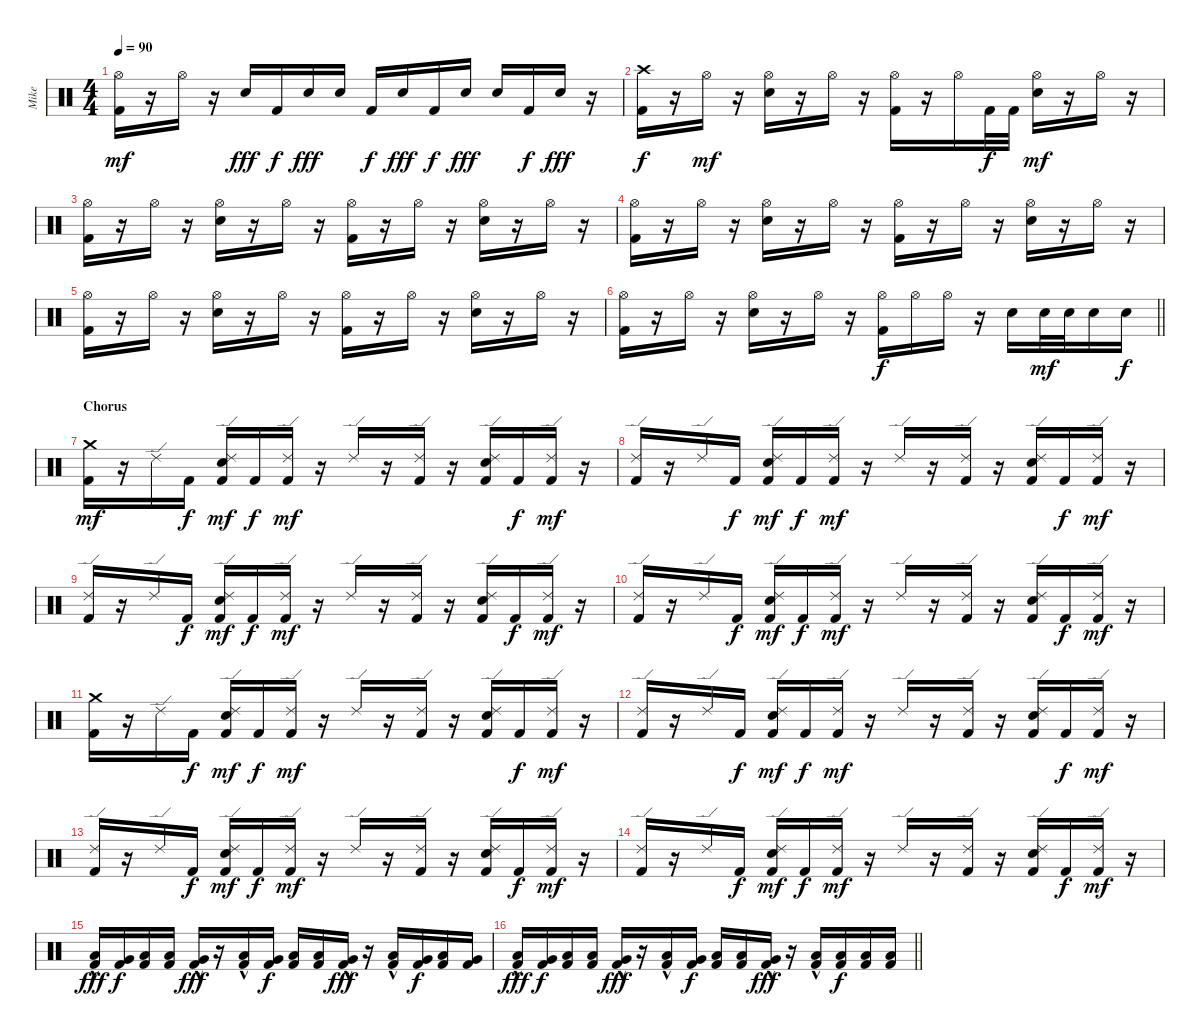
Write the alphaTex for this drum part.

\track ("Mike" "Mike") {instrument percussion}
\staff {score}
\articulation defaults
\ts (4 4)
\tempo 90
\clef neutral
\ks c
("Hi-Hat (open)" "Kick (hit) 2").16{dy mf} r.16 "Hi-Hat (open)".16 r.16 "Snare (hit) 2".16{dy fff} "Kick (hit) 2".16{dy f} "Snare (hit) 2".16{dy fff} "Snare (hit) 2".16 "Kick (hit) 2".16{dy f} "Snare (hit) 2".16{dy fff} "Kick (hit) 2".16{dy f} "Snare (hit) 2".16{dy fff} "Snare (hit) 2".16 "Kick (hit) 2".16{dy f} "Snare (hit) 2".16{dy fff} r.16 |
("Crash high (hit)" "Kick (hit) 2").16{dy f} r.16 "Hi-Hat (open)".16{dy mf} r.16 ("Hi-Hat (open)" "Snare (hit) 2").16 r.16 "Hi-Hat (open)".16 r.16 ("Hi-Hat (open)" "Kick (hit) 2").16 r.16 "Hi-Hat (open)".16 "Kick (hit) 2".32{dy f} "Kick (hit) 2".32 ("Hi-Hat (open)" "Snare (hit) 2").16{dy mf} r.16 "Hi-Hat (open)".16 r.16 |
("Hi-Hat (open)" "Kick (hit) 2").16 r.16 "Hi-Hat (open)".16 r.16 ("Hi-Hat (open)" "Snare (hit) 2").16 r.16 "Hi-Hat (open)".16 r.16 ("Hi-Hat (open)" "Kick (hit) 2").16 r.16 "Hi-Hat (open)".16 r.16 ("Hi-Hat (open)" "Snare (hit) 2").16 r.16 "Hi-Hat (open)".16 r.16 |
("Hi-Hat (open)" "Kick (hit) 2").16 r.16 "Hi-Hat (open)".16 r.16 ("Hi-Hat (open)" "Snare (hit) 2").16 r.16 "Hi-Hat (open)".16 r.16 ("Hi-Hat (open)" "Kick (hit) 2").16 r.16 "Hi-Hat (open)".16 r.16 ("Hi-Hat (open)" "Snare (hit) 2").16 r.16 "Hi-Hat (open)".16 r.16 |
("Hi-Hat (open)" "Kick (hit) 2").16 r.16 "Hi-Hat (open)".16 r.16 ("Hi-Hat (open)" "Snare (hit) 2").16 r.16 "Hi-Hat (open)".16 r.16 ("Hi-Hat (open)" "Kick (hit) 2").16 r.16 "Hi-Hat (open)".16 r.16 ("Hi-Hat (open)" "Snare (hit) 2").16 r.16 "Hi-Hat (open)".16 r.16 |
\barLineRight lightlight
("Hi-Hat (open)" "Kick (hit) 2").16 r.16 "Hi-Hat (open)".16 r.16 ("Hi-Hat (open)" "Snare (hit) 2").16 r.16 "Hi-Hat (open)".16 r.16 ("Hi-Hat (open)" "Kick (hit) 2").16{dy f} "Hi-Hat (open)".16 "Hi-Hat (open)".16 r.16 "Snare (hit) 2".16 "Snare (hit) 2".32{dy mf} "Snare (hit) 2".32 "Snare (hit) 2".16 "Snare (hit) 2".16{dy f} |
\section ("" "Chorus")
("Crash medium (hit)" "Kick (hit) 2").16{dy mf} r.16 "Ride (edge) 2".16 "Kick (hit) 2".16{dy f} ("Ride (edge) 2" "Snare (hit) 2" "Kick (hit) 2").16{dy mf} "Kick (hit) 2".16{dy f} ("Ride (edge) 2" "Kick (hit) 2").16{dy mf} r.16 "Ride (edge) 2".16 r.16 ("Ride (edge) 2" "Kick (hit) 2").16 r.16 ("Ride (edge) 2" "Snare (hit) 2" "Kick (hit) 2").16 "Kick (hit) 2".16{dy f} ("Ride (edge) 2" "Kick (hit) 2").16{dy mf} r.16 |
("Ride (edge) 2" "Kick (hit) 2").16 r.16 "Ride (edge) 2".16 "Kick (hit) 2".16{dy f} ("Ride (edge) 2" "Snare (hit) 2" "Kick (hit) 2").16{dy mf} "Kick (hit) 2".16{dy f} ("Ride (edge) 2" "Kick (hit) 2").16{dy mf} r.16 "Ride (edge) 2".16 r.16 ("Ride (edge) 2" "Kick (hit) 2").16 r.16 ("Ride (edge) 2" "Snare (hit) 2" "Kick (hit) 2").16 "Kick (hit) 2".16{dy f} ("Ride (edge) 2" "Kick (hit) 2").16{dy mf} r.16 |
("Ride (edge) 2" "Kick (hit) 2").16 r.16 "Ride (edge) 2".16 "Kick (hit) 2".16{dy f} ("Ride (edge) 2" "Snare (hit) 2" "Kick (hit) 2").16{dy mf} "Kick (hit) 2".16{dy f} ("Ride (edge) 2" "Kick (hit) 2").16{dy mf} r.16 "Ride (edge) 2".16 r.16 ("Ride (edge) 2" "Kick (hit) 2").16 r.16 ("Ride (edge) 2" "Snare (hit) 2" "Kick (hit) 2").16 "Kick (hit) 2".16{dy f} ("Ride (edge) 2" "Kick (hit) 2").16{dy mf} r.16 |
("Ride (edge) 2" "Kick (hit) 2").16 r.16 "Ride (edge) 2".16 "Kick (hit) 2".16{dy f} ("Ride (edge) 2" "Snare (hit) 2" "Kick (hit) 2").16{dy mf} "Kick (hit) 2".16{dy f} ("Ride (edge) 2" "Kick (hit) 2").16{dy mf} r.16 "Ride (edge) 2".16 r.16 ("Ride (edge) 2" "Kick (hit) 2").16 r.16 ("Ride (edge) 2" "Snare (hit) 2" "Kick (hit) 2").16 "Kick (hit) 2".16{dy f} ("Ride (edge) 2" "Kick (hit) 2").16{dy mf} r.16 |
("Crash medium (hit)" "Kick (hit) 2").16 r.16 "Ride (edge) 2".16 "Kick (hit) 2".16{dy f} ("Ride (edge) 2" "Snare (hit) 2" "Kick (hit) 2").16{dy mf} "Kick (hit) 2".16{dy f} ("Ride (edge) 2" "Kick (hit) 2").16{dy mf} r.16 "Ride (edge) 2".16 r.16 ("Ride (edge) 2" "Kick (hit) 2").16 r.16 ("Ride (edge) 2" "Snare (hit) 2" "Kick (hit) 2").16 "Kick (hit) 2".16{dy f} ("Ride (edge) 2" "Kick (hit) 2").16{dy mf} r.16 |
("Ride (edge) 2" "Kick (hit) 2").16 r.16 "Ride (edge) 2".16 "Kick (hit) 2".16{dy f} ("Ride (edge) 2" "Snare (hit) 2" "Kick (hit) 2").16{dy mf} "Kick (hit) 2".16{dy f} ("Ride (edge) 2" "Kick (hit) 2").16{dy mf} r.16 "Ride (edge) 2".16 r.16 ("Ride (edge) 2" "Kick (hit) 2").16 r.16 ("Ride (edge) 2" "Snare (hit) 2" "Kick (hit) 2").16 "Kick (hit) 2".16{dy f} ("Ride (edge) 2" "Kick (hit) 2").16{dy mf} r.16 |
("Ride (edge) 2" "Kick (hit) 2").16 r.16 "Ride (edge) 2".16 "Kick (hit) 2".16{dy f} ("Ride (edge) 2" "Snare (hit) 2" "Kick (hit) 2").16{dy mf} "Kick (hit) 2".16{dy f} ("Ride (edge) 2" "Kick (hit) 2").16{dy mf} r.16 "Ride (edge) 2".16 r.16 ("Ride (edge) 2" "Kick (hit) 2").16 r.16 ("Ride (edge) 2" "Snare (hit) 2" "Kick (hit) 2").16 "Kick (hit) 2".16{dy f} ("Ride (edge) 2" "Kick (hit) 2").16{dy mf} r.16 |
("Ride (edge) 2" "Kick (hit) 2").16 r.16 "Ride (edge) 2".16 "Kick (hit) 2".16{dy f} ("Ride (edge) 2" "Snare (hit) 2" "Kick (hit) 2").16{dy mf} "Kick (hit) 2".16{dy f} ("Ride (edge) 2" "Kick (hit) 2").16{dy mf} r.16 "Ride (edge) 2".16 r.16 ("Ride (edge) 2" "Kick (hit) 2").16 r.16 ("Ride (edge) 2" "Snare (hit) 2" "Kick (hit) 2").16 "Kick (hit) 2".16{dy f} ("Ride (edge) 2" "Kick (hit) 2").16{dy mf} r.16 |
("Low Tom (hit)"{hac} "Kick (hit) 2"{hac}).16{dy fff} ("Very Low Tom (hit)" "Kick (hit) 2").16{dy f} ("Low Floor Tom (hit)" "Kick (hit) 2").16 ("Low Tom (hit)" "Kick (hit) 2").16 ("Very Low Tom (hit)"{hac} "Kick (hit) 2"{hac}).16{dy fff} r.16 ("Low Tom (hit)"{hac} "Kick (hit) 2"{hac}).16 ("Very Low Tom (hit)" "Kick (hit) 2").16{dy f} ("Low Floor Tom (hit)" "Kick (hit) 2").16 ("Low Tom (hit)" "Kick (hit) 2").16 ("Very Low Tom (hit)"{hac} "Kick (hit) 2"{hac}).16{dy fff} r.16 ("Low Tom (hit)"{hac} "Kick (hit) 2"{hac}).16 ("Very Low Tom (hit)" "Kick (hit) 2").16{dy f} ("Low Floor Tom (hit)" "Kick (hit) 2").16 ("Very Low Tom (hit)" "Kick (hit) 2").16 |
\barLineRight lightlight
("Low Tom (hit)"{hac} "Kick (hit) 2"{hac}).16{dy fff} ("Very Low Tom (hit)" "Kick (hit) 2").16{dy f} ("Low Floor Tom (hit)" "Kick (hit) 2").16 ("Low Tom (hit)" "Kick (hit) 2").16 ("Very Low Tom (hit)"{hac} "Kick (hit) 2"{hac}).16{dy fff} r.16 ("Low Tom (hit)"{hac} "Kick (hit) 2"{hac}).16 ("Very Low Tom (hit)" "Kick (hit) 2").16{dy f} ("Low Floor Tom (hit)" "Kick (hit) 2").16 ("Low Tom (hit)" "Kick (hit) 2").16 ("Very Low Tom (hit)"{hac} "Kick (hit) 2"{hac}).16{dy fff} r.16 ("Low Tom (hit)"{hac} "Kick (hit) 2"{hac}).16 ("Low Tom (hit)" "Kick (hit) 2").16{dy f} ("Low Tom (hit)" "Kick (hit) 2").16 ("Low Tom (hit)" "Kick (hit) 2").16
